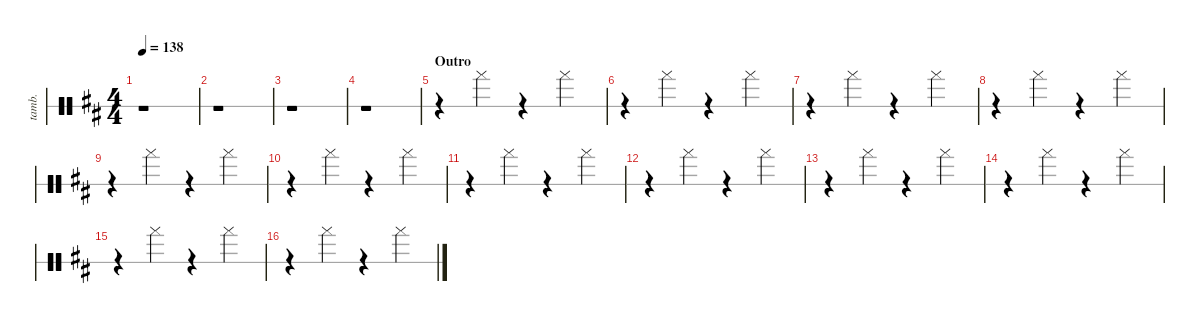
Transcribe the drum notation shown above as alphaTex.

\hideDynamics
\bracketExtendMode groupsimilarinstruments
\otherSystemsTrackNameOrientation horizontal
\track ("Tambourine" "tamb.") {instrument percussion}
\staff {score 1}
\articulation defaults
\ts (4 4)
\tempo 138
\clef neutral
\ks d
r.1{dy mf} |
r.1 |
r.1 |
r.1 |
\section ("" "Outro")
r.4 "Tambourine (hand)"{acc forcenatural}.4 r.4 "Tambourine (hand)"{acc forcenatural}.4 |
r.4 "Tambourine (hand)"{acc forcenatural}.4 r.4 "Tambourine (hand)"{acc forcenatural}.4 |
r.4 "Tambourine (hand)"{acc forcenatural}.4 r.4 "Tambourine (hand)"{acc forcenatural}.4 |
r.4 "Tambourine (hand)"{acc forcenatural}.4 r.4 "Tambourine (hand)"{acc forcenatural}.4 |
r.4 "Tambourine (hand)"{acc forcenatural}.4 r.4 "Tambourine (hand)"{acc forcenatural}.4 |
r.4 "Tambourine (hand)"{acc forcenatural}.4 r.4 "Tambourine (hand)"{acc forcenatural}.4 |
r.4 "Tambourine (hand)"{acc forcenatural}.4 r.4 "Tambourine (hand)"{acc forcenatural}.4 |
r.4 "Tambourine (hand)"{acc forcenatural}.4 r.4 "Tambourine (hand)"{acc forcenatural}.4 |
r.4 "Tambourine (hand)"{acc forcenatural}.4 r.4 "Tambourine (hand)"{acc forcenatural}.4 |
r.4 "Tambourine (hand)"{acc forcenatural}.4 r.4 "Tambourine (hand)"{acc forcenatural}.4 |
r.4 "Tambourine (hand)"{acc forcenatural}.4 r.4 "Tambourine (hand)"{acc forcenatural}.4 |
r.4 "Tambourine (hand)"{acc forcenatural}.4 r.4 "Tambourine (hand)"{acc forcenatural}.4
